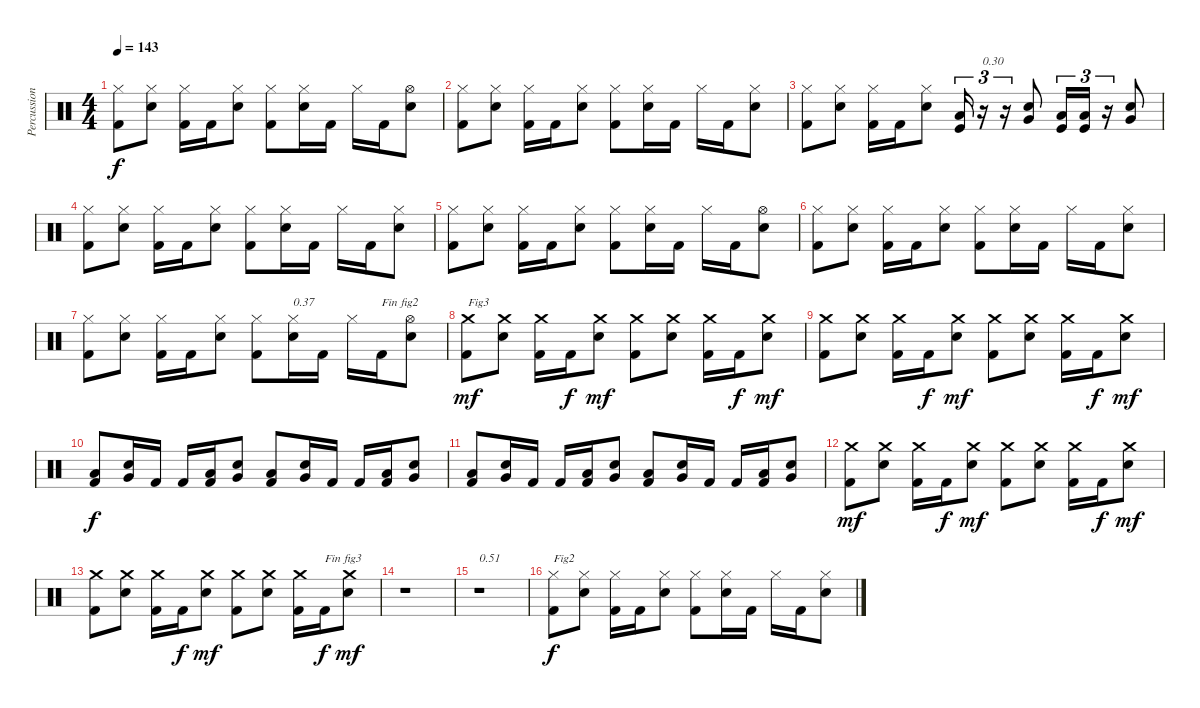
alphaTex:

\track ("Percussions" "Percussion") {instrument percussion}
\staff {score}
\articulation defaults
\ts (4 4)
\tempo 143
\clef neutral
\ks c
("Kick (hit) 2" "Hi-Hat (closed)").8{dy f} ("Electric Snare (hit)" "Hi-Hat (closed)").8 ("Kick (hit) 2" "Hi-Hat (closed)").16 "Kick (hit) 2".16 ("Electric Snare (hit)" "Hi-Hat (closed)").8 ("Kick (hit) 2" "Hi-Hat (closed)").8 ("Electric Snare (hit)" "Hi-Hat (closed)").16 "Kick (hit) 2".16 "Hi-Hat (closed)".16 "Kick (hit) 2".16 ("Electric Snare (hit)" "Hi-Hat (open)").8 |
("Kick (hit) 2" "Hi-Hat (closed)").8 ("Electric Snare (hit)" "Hi-Hat (closed)").8 ("Kick (hit) 2" "Hi-Hat (closed)").16 "Kick (hit) 2".16 ("Electric Snare (hit)" "Hi-Hat (closed)").8 ("Kick (hit) 2" "Hi-Hat (closed)").8 ("Electric Snare (hit)" "Hi-Hat (closed)").16 "Kick (hit) 2".16 "Hi-Hat (closed)".16 "Kick (hit) 2".16 ("Electric Snare (hit)" "Hi-Hat (closed)").8 |
("Kick (hit) 2" "Hi-Hat (closed)").8 ("Electric Snare (hit)" "Hi-Hat (closed)").8 ("Kick (hit) 2" "Hi-Hat (closed)").16 "Kick (hit) 2".16 ("Electric Snare (hit)" "Hi-Hat (closed)").8 ("Kick (hit)" "Low Floor Tom (hit)").16{tu (3 2)} r.16{tu (3 2) txt "0.30"} r.16{tu (3 2)} ("Electric Snare (hit)" "Very Low Tom (hit)").8 ("Kick (hit)" "Low Floor Tom (hit)").16{tu (3 2)} ("Kick (hit)" "Low Floor Tom (hit)").16{tu (3 2)} r.16{tu (3 2)} ("Electric Snare (hit)" "Very Low Tom (hit)").8 |
("Kick (hit) 2" "Hi-Hat (closed)").8 ("Electric Snare (hit)" "Hi-Hat (closed)").8 ("Kick (hit) 2" "Hi-Hat (closed)").16 "Kick (hit) 2".16 ("Electric Snare (hit)" "Hi-Hat (closed)").8 ("Kick (hit) 2" "Hi-Hat (closed)").8 ("Electric Snare (hit)" "Hi-Hat (closed)").16 "Kick (hit) 2".16 "Hi-Hat (closed)".16 "Kick (hit) 2".16 ("Electric Snare (hit)" "Hi-Hat (closed)").8 |
("Kick (hit) 2" "Hi-Hat (closed)").8 ("Electric Snare (hit)" "Hi-Hat (closed)").8 ("Kick (hit) 2" "Hi-Hat (closed)").16 "Kick (hit) 2".16 ("Electric Snare (hit)" "Hi-Hat (closed)").8 ("Kick (hit) 2" "Hi-Hat (closed)").8 ("Electric Snare (hit)" "Hi-Hat (closed)").16 "Kick (hit) 2".16 "Hi-Hat (closed)".16 "Kick (hit) 2".16 ("Electric Snare (hit)" "Hi-Hat (open)").8 |
("Kick (hit) 2" "Hi-Hat (closed)").8 ("Electric Snare (hit)" "Hi-Hat (closed)").8 ("Kick (hit) 2" "Hi-Hat (closed)").16 "Kick (hit) 2".16 ("Electric Snare (hit)" "Hi-Hat (closed)").8 ("Kick (hit) 2" "Hi-Hat (closed)").8 ("Electric Snare (hit)" "Hi-Hat (closed)").16 "Kick (hit) 2".16 "Hi-Hat (closed)".16 "Kick (hit) 2".16 ("Electric Snare (hit)" "Hi-Hat (closed)").8 |
("Kick (hit) 2" "Hi-Hat (closed)").8 ("Electric Snare (hit)" "Hi-Hat (closed)").8 ("Kick (hit) 2" "Hi-Hat (closed)").16 "Kick (hit) 2".16 ("Electric Snare (hit)" "Hi-Hat (closed)").8 ("Kick (hit) 2" "Hi-Hat (closed)").8 ("Electric Snare (hit)" "Hi-Hat (closed)").16{txt "0.37"} "Kick (hit) 2".16 "Hi-Hat (closed)".16 "Kick (hit) 2".16{txt "Fin fig2"} ("Electric Snare (hit)" "Hi-Hat (open)").8 |
("Kick (hit) 2" "Crash medium (hit)").8{txt "Fig3" dy mf} ("Electric Snare (hit)" "Crash medium (hit)").8 ("Kick (hit) 2" "Crash medium (hit)").16 "Kick (hit) 2".16{dy f} ("Electric Snare (hit)" "Crash medium (hit)").8{dy mf} ("Kick (hit) 2" "Crash medium (hit)").8 ("Electric Snare (hit)" "Crash medium (hit)").8 ("Kick (hit) 2" "Crash medium (hit)").16 "Kick (hit) 2".16{dy f} ("Electric Snare (hit)" "Crash medium (hit)").8{dy mf} |
("Kick (hit) 2" "Crash medium (hit)").8 ("Electric Snare (hit)" "Crash medium (hit)").8 ("Kick (hit) 2" "Crash medium (hit)").16 "Kick (hit) 2".16{dy f} ("Electric Snare (hit)" "Crash medium (hit)").8{dy mf} ("Kick (hit) 2" "Crash medium (hit)").8 ("Electric Snare (hit)" "Crash medium (hit)").8 ("Kick (hit) 2" "Crash medium (hit)").16 "Kick (hit) 2".16{dy f} ("Electric Snare (hit)" "Crash medium (hit)").8{dy mf} |
("Kick (hit) 2" "Low Floor Tom (hit)").8{dy f} ("Electric Snare (hit)" "Very Low Tom (hit)").16 "Kick (hit) 2".16 "Kick (hit) 2".16 ("Kick (hit) 2" "Low Floor Tom (hit)").16 ("Electric Snare (hit)" "Very Low Tom (hit)").8 ("Kick (hit) 2" "Low Floor Tom (hit)").8 ("Electric Snare (hit)" "Very Low Tom (hit)").16 "Kick (hit) 2".16 "Kick (hit) 2".16 ("Kick (hit) 2" "Low Floor Tom (hit)").16 ("Electric Snare (hit)" "Very Low Tom (hit)").8 |
("Kick (hit) 2" "Low Floor Tom (hit)").8 ("Electric Snare (hit)" "Very Low Tom (hit)").16 "Kick (hit) 2".16 "Kick (hit) 2".16 ("Kick (hit) 2" "Low Floor Tom (hit)").16 ("Electric Snare (hit)" "Very Low Tom (hit)").8 ("Kick (hit) 2" "Low Floor Tom (hit)").8 ("Electric Snare (hit)" "Very Low Tom (hit)").16 "Kick (hit) 2".16 "Kick (hit) 2".16 ("Kick (hit) 2" "Low Floor Tom (hit)").16 ("Electric Snare (hit)" "Very Low Tom (hit)").8 |
("Kick (hit) 2" "Crash medium (hit)").8{dy mf} ("Electric Snare (hit)" "Crash medium (hit)").8 ("Kick (hit) 2" "Crash medium (hit)").16 "Kick (hit) 2".16{dy f} ("Electric Snare (hit)" "Crash medium (hit)").8{dy mf} ("Kick (hit) 2" "Crash medium (hit)").8 ("Electric Snare (hit)" "Crash medium (hit)").8 ("Kick (hit) 2" "Crash medium (hit)").16 "Kick (hit) 2".16{dy f} ("Electric Snare (hit)" "Crash medium (hit)").8{dy mf} |
("Kick (hit) 2" "Crash medium (hit)").8 ("Electric Snare (hit)" "Crash medium (hit)").8 ("Kick (hit) 2" "Crash medium (hit)").16 "Kick (hit) 2".16{dy f} ("Electric Snare (hit)" "Crash medium (hit)").8{dy mf} ("Kick (hit) 2" "Crash medium (hit)").8 ("Electric Snare (hit)" "Crash medium (hit)").8 ("Kick (hit) 2" "Crash medium (hit)").16 "Kick (hit) 2".16{txt "Fin fig3" dy f} ("Electric Snare (hit)" "Crash medium (hit)").8{dy mf} |
r.1 |
r.1{txt "0.51"} |
("Kick (hit) 2" "Hi-Hat (closed)").8{txt "Fig2" dy f} ("Electric Snare (hit)" "Hi-Hat (closed)").8 ("Kick (hit) 2" "Hi-Hat (closed)").16 "Kick (hit) 2".16 ("Electric Snare (hit)" "Hi-Hat (closed)").8 ("Kick (hit) 2" "Hi-Hat (closed)").8 ("Electric Snare (hit)" "Hi-Hat (closed)").16 "Kick (hit) 2".16 "Hi-Hat (closed)".16 "Kick (hit) 2".16 ("Electric Snare (hit)" "Hi-Hat (closed)").8
